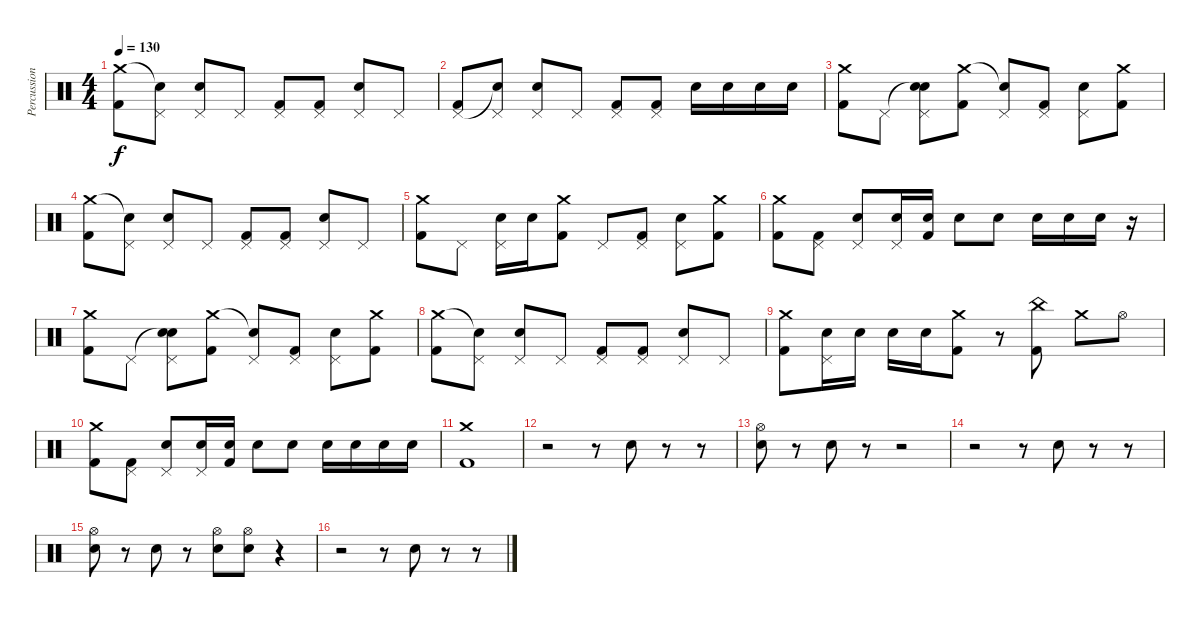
\track ("Percussion" "Percussion") {instrument percussion}
\staff {score}
\articulation defaults
\ts (4 4)
\tempo 130
\clef neutral
\ks c
("Crash medium (hit)" "Kick (hit) 2").8{dy f} ("Snare (hit)"{t} "Pedal Hi-Hat (hit)").8 ("Pedal Hi-Hat (hit)" "Snare (hit) 2").8 "Pedal Hi-Hat (hit)".8 ("Pedal Hi-Hat (hit)" "Kick (hit) 2").8 ("Pedal Hi-Hat (hit)" "Kick (hit) 2").8 ("Pedal Hi-Hat (hit)" "Snare (hit) 2").8 "Pedal Hi-Hat (hit)".8 |
("Pedal Hi-Hat (hit)" "Kick (hit) 2").8 ("Snare (hit)"{t} "Pedal Hi-Hat (hit)").8 ("Pedal Hi-Hat (hit)" "Snare (hit) 2").8 "Pedal Hi-Hat (hit)".8 ("Pedal Hi-Hat (hit)" "Kick (hit) 2").8 ("Pedal Hi-Hat (hit)" "Kick (hit) 2").8 "Snare (hit) 2".16 "Snare (hit) 2".16 "Snare (hit) 2".16 "Snare (hit) 2".16 |
("Crash medium (hit)" "Kick (hit) 2").8 "Pedal Hi-Hat (hit)".8 ("Snare (hit)"{t} "Pedal Hi-Hat (hit)" "Snare (hit) 2").8 ("Crash medium (hit)" "Kick (hit) 2").8 ("Snare (hit)"{t} "Pedal Hi-Hat (hit)").8 ("Pedal Hi-Hat (hit)" "Kick (hit) 2").8 ("Pedal Hi-Hat (hit)" "Snare (hit) 2").8 ("Crash medium (hit)" "Kick (hit) 2").8 |
("Crash medium (hit)" "Kick (hit) 2").8 ("Snare (hit)"{t} "Pedal Hi-Hat (hit)").8 ("Pedal Hi-Hat (hit)" "Snare (hit) 2").8 "Pedal Hi-Hat (hit)".8 ("Pedal Hi-Hat (hit)" "Kick (hit) 2").8 ("Pedal Hi-Hat (hit)" "Kick (hit) 2").8 ("Pedal Hi-Hat (hit)" "Snare (hit) 2").8 "Pedal Hi-Hat (hit)".8 |
("Crash medium (hit)" "Kick (hit) 2").8 "Pedal Hi-Hat (hit)".8 ("Pedal Hi-Hat (hit)" "Snare (hit) 2").16 "Snare (hit) 2".16 ("Crash medium (hit)" "Kick (hit) 2").8 "Pedal Hi-Hat (hit)".8 ("Pedal Hi-Hat (hit)" "Kick (hit) 2").8 ("Pedal Hi-Hat (hit)" "Snare (hit) 2").8 ("Crash medium (hit)" "Kick (hit) 2").8 |
("Crash medium (hit)" "Kick (hit) 2").8 ("Pedal Hi-Hat (hit)" "Kick (hit) 2").8 ("Pedal Hi-Hat (hit)" "Snare (hit) 2").8 ("Pedal Hi-Hat (hit)" "Snare (hit) 2").16 ("Snare (hit) 2" "Kick (hit) 2").16 "Snare (hit) 2".8 "Snare (hit) 2".8 "Snare (hit) 2".16 "Snare (hit) 2".16 "Snare (hit) 2".16 r.16 |
("Crash medium (hit)" "Kick (hit) 2").8 "Pedal Hi-Hat (hit)".8 ("Snare (hit)"{t} "Pedal Hi-Hat (hit)" "Snare (hit) 2").8 ("Crash medium (hit)" "Kick (hit) 2").8 ("Snare (hit)"{t} "Pedal Hi-Hat (hit)").8 ("Pedal Hi-Hat (hit)" "Kick (hit) 2").8 ("Pedal Hi-Hat (hit)" "Snare (hit) 2").8 ("Crash medium (hit)" "Kick (hit) 2").8 |
("Crash medium (hit)" "Kick (hit) 2").8 ("Snare (hit)"{t} "Pedal Hi-Hat (hit)").8 ("Pedal Hi-Hat (hit)" "Snare (hit) 2").8 "Pedal Hi-Hat (hit)".8 ("Pedal Hi-Hat (hit)" "Kick (hit) 2").8 ("Pedal Hi-Hat (hit)" "Kick (hit) 2").8 ("Pedal Hi-Hat (hit)" "Snare (hit) 2").8 "Pedal Hi-Hat (hit)".8 |
("Crash medium (hit)" "Kick (hit) 2").8 ("Pedal Hi-Hat (hit)" "Snare (hit) 2").16 "Snare (hit) 2".16 "Snare (hit) 2".16 "Snare (hit) 2".16 ("Crash medium (hit)" "Kick (hit) 2").8 r.8 ("China (hit)" "Kick (hit) 2").8 "Crash medium (hit)".8 "Hi-Hat (open)".8 |
("Crash medium (hit)" "Kick (hit) 2").8 ("Pedal Hi-Hat (hit)" "Kick (hit) 2").8 ("Pedal Hi-Hat (hit)" "Snare (hit) 2").8 ("Pedal Hi-Hat (hit)" "Snare (hit) 2").16 ("Snare (hit) 2" "Kick (hit) 2").16 "Snare (hit) 2".8 "Snare (hit) 2".8 "Snare (hit) 2".16 "Snare (hit) 2".16 "Snare (hit) 2".16 "Snare (hit) 2".16 |
("Crash medium (hit)" "Kick (hit) 2").1 |
r.2 r.8 "Snare (hit) 2".8 r.8 r.8 |
("Hi-Hat (open)" "Snare (hit) 2").8 r.8 "Snare (hit) 2".8 r.8 r.2 |
r.2 r.8 "Snare (hit) 2".8 r.8 r.8 |
("Hi-Hat (open)" "Snare (hit) 2").8 r.8 "Snare (hit) 2".8 r.8 ("Hi-Hat (open)" "Snare (hit) 2").8 ("Hi-Hat (open)" "Snare (hit) 2").8 r.4 |
r.2 r.8 "Snare (hit) 2".8 r.8 r.8
